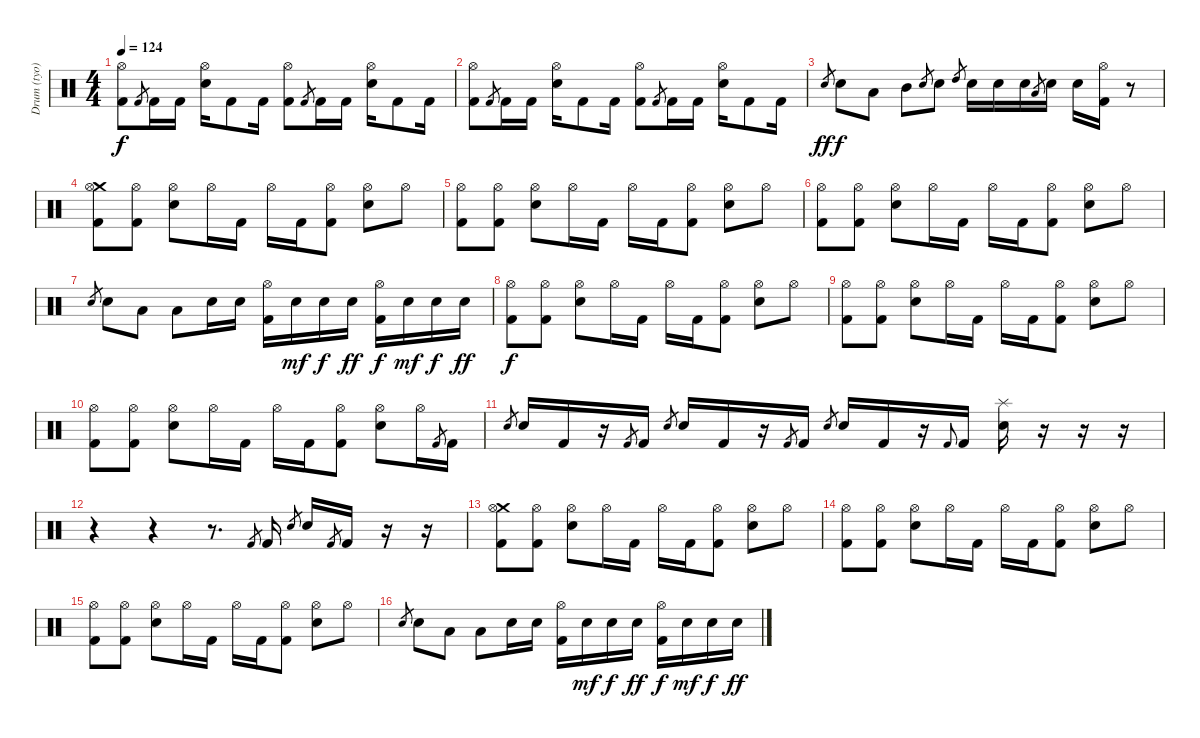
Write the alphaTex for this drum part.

\track ("Drum (tyo)" "Drum (tyo)") {instrument percussion}
\staff {score}
\articulation defaults
\ts (4 4)
\tempo 124
\clef neutral
\ks c
("Hi-Hat (open)" "Kick (hit) 2").8{dy f} "Kick (hit) 2".8{gr} "Kick (hit) 2".16 "Kick (hit) 2".16 ("Hi-Hat (open)" "Electric Snare (hit)").16 "Kick (hit) 2".8 "Kick (hit) 2".16 ("Hi-Hat (open)" "Kick (hit) 2").8 "Kick (hit) 2".8{gr} "Kick (hit) 2".16 "Kick (hit) 2".16 ("Hi-Hat (open)" "Electric Snare (hit)").16 "Kick (hit) 2".8 "Kick (hit) 2".16 |
("Hi-Hat (open)" "Kick (hit) 2").8 "Kick (hit) 2".8{gr} "Kick (hit) 2".16 "Kick (hit) 2".16 ("Hi-Hat (open)" "Electric Snare (hit)").16 "Kick (hit) 2".8 "Kick (hit) 2".16 ("Hi-Hat (open)" "Kick (hit) 2").8 "Kick (hit) 2".8{gr} "Kick (hit) 2".16 "Kick (hit) 2".16 ("Hi-Hat (open)" "Electric Snare (hit)").16 "Kick (hit) 2".8 "Kick (hit) 2".16 |
"Electric Snare (hit)".8{gr dy ff} "Electric Snare (hit)".8{dy f} "Low Tom (hit)".8 "Mid Tom (hit)".8 "Electric Snare (hit)".8{gr} "Electric Snare (hit)".8 "High Tom (hit)".8{gr} "Electric Snare (hit)".16 "Electric Snare (hit)".16 "Electric Snare (hit)".16 "Low Tom (hit)".8{gr} "Electric Snare (hit)".16 "Electric Snare (hit)".16 ("Hi-Hat (open)" "Kick (hit) 2").16 r.8 |
("Kick (hit) 2" "Crash medium (hit)" "Hi-Hat (open)").8 ("Kick (hit) 2" "Hi-Hat (open)").8 ("Electric Snare (hit)" "Hi-Hat (open)").8 "Hi-Hat (open)".16 "Kick (hit) 2".16 "Hi-Hat (open)".16 "Kick (hit) 2".16 ("Kick (hit) 2" "Hi-Hat (open)").8 ("Electric Snare (hit)" "Hi-Hat (open)").8 "Hi-Hat (open)".8 |
("Kick (hit) 2" "Hi-Hat (open)").8 ("Kick (hit) 2" "Hi-Hat (open)").8 ("Electric Snare (hit)" "Hi-Hat (open)").8 "Hi-Hat (open)".16 "Kick (hit) 2".16 "Hi-Hat (open)".16 "Kick (hit) 2".16 ("Kick (hit) 2" "Hi-Hat (open)").8 ("Electric Snare (hit)" "Hi-Hat (open)").8 "Hi-Hat (open)".8 |
("Kick (hit) 2" "Hi-Hat (open)").8 ("Kick (hit) 2" "Hi-Hat (open)").8 ("Electric Snare (hit)" "Hi-Hat (open)").8 "Hi-Hat (open)".16 "Kick (hit) 2".16 "Hi-Hat (open)".16 "Kick (hit) 2".16 ("Kick (hit) 2" "Hi-Hat (open)").8 ("Electric Snare (hit)" "Hi-Hat (open)").8 "Hi-Hat (open)".8 |
"Electric Snare (hit)".8{gr} "Electric Snare (hit)".8 "Low Tom (hit)".8 "Low Tom (hit)".8 "Electric Snare (hit)".16 "Electric Snare (hit)".16 ("Kick (hit) 2" "Hi-Hat (open)").16 "Electric Snare (hit)".16{dy mf} "Electric Snare (hit)".16{dy f} "Electric Snare (hit)".16{dy ff} ("Hi-Hat (open)" "Kick (hit) 2").16{dy f} "Electric Snare (hit)".16{dy mf} "Electric Snare (hit)".16{dy f} "Electric Snare (hit)".16{dy ff} |
("Kick (hit) 2" "Hi-Hat (open)").8{dy f} ("Kick (hit) 2" "Hi-Hat (open)").8 ("Electric Snare (hit)" "Hi-Hat (open)").8 "Hi-Hat (open)".16 "Kick (hit) 2".16 "Hi-Hat (open)".16 "Kick (hit) 2".16 ("Kick (hit) 2" "Hi-Hat (open)").8 ("Electric Snare (hit)" "Hi-Hat (open)").8 "Hi-Hat (open)".8 |
("Kick (hit) 2" "Hi-Hat (open)").8 ("Kick (hit) 2" "Hi-Hat (open)").8 ("Electric Snare (hit)" "Hi-Hat (open)").8 "Hi-Hat (open)".16 "Kick (hit) 2".16 "Hi-Hat (open)".16 "Kick (hit) 2".16 ("Kick (hit) 2" "Hi-Hat (open)").8 ("Electric Snare (hit)" "Hi-Hat (open)").8 "Hi-Hat (open)".8 |
("Kick (hit) 2" "Hi-Hat (open)").8 ("Kick (hit) 2" "Hi-Hat (open)").8 ("Electric Snare (hit)" "Hi-Hat (open)").8 "Hi-Hat (open)".16 "Kick (hit) 2".16 "Hi-Hat (open)".16 "Kick (hit) 2".16 ("Kick (hit) 2" "Hi-Hat (open)").8 ("Electric Snare (hit)" "Hi-Hat (open)").8 "Hi-Hat (open)".16 "Kick (hit) 2".8{gr} "Kick (hit) 2".16 |
"Electric Snare (hit)".8{gr} "Electric Snare (hit)".16 "Kick (hit) 2".16 r.16 "Kick (hit) 2".8{gr} "Kick (hit) 2".16 "Electric Snare (hit)".8{gr} "Electric Snare (hit)".16 "Kick (hit) 2".16 r.16 "Kick (hit) 2".8{gr} "Kick (hit) 2".16 "Electric Snare (hit)".8{gr} "Electric Snare (hit)".16 "Kick (hit) 2".16 r.16 "Kick (hit) 2".8{gr onbeat} "Kick (hit) 2".16 ("Electric Snare (hit)" "Splash (hit)").16 r.16 r.16 r.16 |
r.4 r.4 r.8{d} "Kick (hit) 2".8{gr} "Kick (hit) 2".16 "Electric Snare (hit)".8{gr} "Electric Snare (hit)".16 "Kick (hit) 2".8{gr} "Kick (hit) 2".16 r.16 r.16 |
("Kick (hit) 2" "Crash medium (hit)" "Hi-Hat (open)").8 ("Kick (hit) 2" "Hi-Hat (open)").8 ("Electric Snare (hit)" "Hi-Hat (open)").8 "Hi-Hat (open)".16 "Kick (hit) 2".16 "Hi-Hat (open)".16 "Kick (hit) 2".16 ("Kick (hit) 2" "Hi-Hat (open)").8 ("Electric Snare (hit)" "Hi-Hat (open)").8 "Hi-Hat (open)".8 |
("Kick (hit) 2" "Hi-Hat (open)").8 ("Kick (hit) 2" "Hi-Hat (open)").8 ("Electric Snare (hit)" "Hi-Hat (open)").8 "Hi-Hat (open)".16 "Kick (hit) 2".16 "Hi-Hat (open)".16 "Kick (hit) 2".16 ("Kick (hit) 2" "Hi-Hat (open)").8 ("Electric Snare (hit)" "Hi-Hat (open)").8 "Hi-Hat (open)".8 |
("Kick (hit) 2" "Hi-Hat (open)").8 ("Kick (hit) 2" "Hi-Hat (open)").8 ("Electric Snare (hit)" "Hi-Hat (open)").8 "Hi-Hat (open)".16 "Kick (hit) 2".16 "Hi-Hat (open)".16 "Kick (hit) 2".16 ("Kick (hit) 2" "Hi-Hat (open)").8 ("Electric Snare (hit)" "Hi-Hat (open)").8 "Hi-Hat (open)".8 |
"Electric Snare (hit)".8{gr} "Electric Snare (hit)".8 "Low Tom (hit)".8 "Low Tom (hit)".8 "Electric Snare (hit)".16 "Electric Snare (hit)".16 ("Kick (hit) 2" "Hi-Hat (open)").16 "Electric Snare (hit)".16{dy mf} "Electric Snare (hit)".16{dy f} "Electric Snare (hit)".16{dy ff} ("Hi-Hat (open)" "Kick (hit) 2").16{dy f} "Electric Snare (hit)".16{dy mf} "Electric Snare (hit)".16{dy f} "Electric Snare (hit)".16{dy ff}
